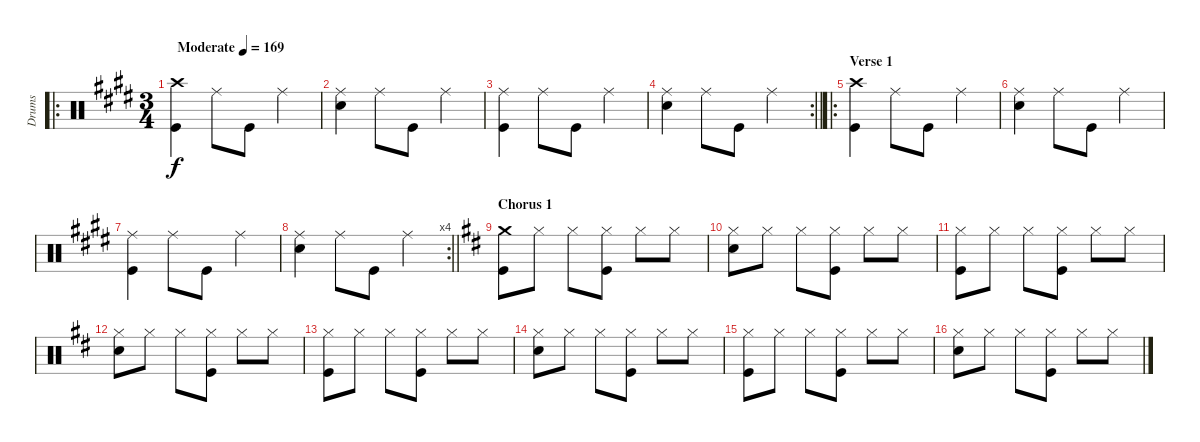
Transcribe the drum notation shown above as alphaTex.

\track ("Drums" "Drums") {instrument percussion}
\staff {score}
\articulation defaults
\ro
\ts (3 4)
\tempo (169 "Moderate")
\clef neutral
\ks e
("Crash high (hit)" "Kick (hit)").4{dy f} "Ride (middle)".8 "Kick (hit)".8 "Ride (middle)".4 |
("Ride (middle)" "Snare (hit) 2").4 "Ride (middle)".8 "Kick (hit)".8 "Ride (middle)".4 |
("Ride (middle)" "Kick (hit)").4 "Ride (middle)".8 "Kick (hit)".8 "Ride (middle)".4 |
\rc 2
\barLineRight lightlight
("Ride (middle)" "Snare (hit) 2").4 "Ride (middle)".8 "Kick (hit)".8 "Ride (middle)".4 |
\ro
\section ("" "Verse 1")
("Crash high (hit)" "Kick (hit)").4 "Ride (middle)".8 "Kick (hit)".8 "Ride (middle)".4 |
("Ride (middle)" "Snare (hit) 2").4 "Ride (middle)".8 "Kick (hit)".8 "Ride (middle)".4 |
("Ride (middle)" "Kick (hit)").4 "Ride (middle)".8 "Kick (hit)".8 "Ride (middle)".4 |
\rc 4
\barLineRight lightlight
("Ride (middle)" "Snare (hit) 2").4 "Ride (middle)".8 "Kick (hit)".8 "Ride (middle)".4 |
\section ("" "Chorus 1")
\ks d
("Crash medium (hit)" "Kick (hit)").8 "Hi-Hat (closed)".8 "Hi-Hat (closed)".8 ("Hi-Hat (closed)" "Kick (hit)").8 "Hi-Hat (closed)".8 "Hi-Hat (closed)".8 |
("Hi-Hat (closed)" "Snare (hit) 2").8 "Hi-Hat (closed)".8 "Hi-Hat (closed)".8 ("Hi-Hat (closed)" "Kick (hit)").8 "Hi-Hat (closed)".8 "Hi-Hat (closed)".8 |
("Hi-Hat (closed)" "Kick (hit)").8 "Hi-Hat (closed)".8 "Hi-Hat (closed)".8 ("Hi-Hat (closed)" "Kick (hit)").8 "Hi-Hat (closed)".8 "Hi-Hat (closed)".8 |
("Hi-Hat (closed)" "Snare (hit) 2").8 "Hi-Hat (closed)".8 "Hi-Hat (closed)".8 ("Hi-Hat (closed)" "Kick (hit)").8 "Hi-Hat (closed)".8 "Hi-Hat (closed)".8 |
("Hi-Hat (closed)" "Kick (hit)").8 "Hi-Hat (closed)".8 "Hi-Hat (closed)".8 ("Hi-Hat (closed)" "Kick (hit)").8 "Hi-Hat (closed)".8 "Hi-Hat (closed)".8 |
("Hi-Hat (closed)" "Snare (hit) 2").8 "Hi-Hat (closed)".8 "Hi-Hat (closed)".8 ("Hi-Hat (closed)" "Kick (hit)").8 "Hi-Hat (closed)".8 "Hi-Hat (closed)".8 |
("Hi-Hat (closed)" "Kick (hit)").8 "Hi-Hat (closed)".8 "Hi-Hat (closed)".8 ("Hi-Hat (closed)" "Kick (hit)").8 "Hi-Hat (closed)".8 "Hi-Hat (closed)".8 |
("Hi-Hat (closed)" "Snare (hit) 2").8 "Hi-Hat (closed)".8 "Hi-Hat (closed)".8 ("Hi-Hat (closed)" "Kick (hit)").8 "Hi-Hat (closed)".8 "Hi-Hat (closed)".8
